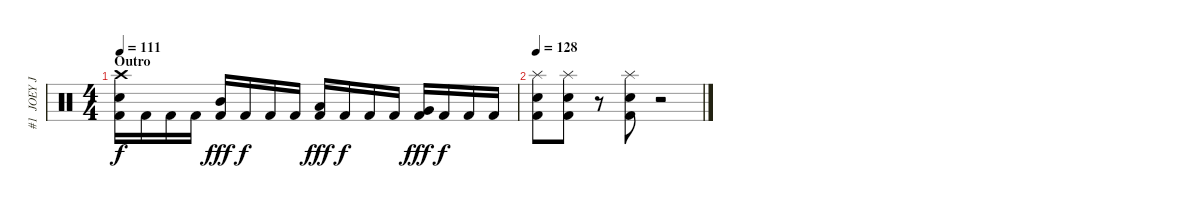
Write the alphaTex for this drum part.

\track ("#1  JOEY JORDISON" "#1  JOEY J") {instrument percussion}
\staff {score}
\articulation defaults
\ts (4 4)
\section ("" "Outro")
\tempo 111
\clef neutral
\ks c
("Crash high (hit)" "Electric Snare (hit)" "Kick (hit) 2").16{dy f} "Kick (hit) 2".16 "Kick (hit) 2".16 "Kick (hit) 2".16 ("Mid Tom (hit)" "Kick (hit) 2").16{dy fff} "Kick (hit) 2".16{dy f} "Kick (hit) 2".16 "Kick (hit) 2".16 ("Low Tom (hit)" "Kick (hit) 2").16{dy fff} "Kick (hit) 2".16{dy f} "Kick (hit) 2".16 "Kick (hit) 2".16 ("Very Low Tom (hit)" "Kick (hit) 2").16{dy fff} "Kick (hit) 2".16{dy f} "Kick (hit) 2".16 "Kick (hit) 2".16 |
\tempo 128
("Splash (hit)" "Electric Snare (hit)" "Kick (hit) 2").8 ("Splash (hit)" "Electric Snare (hit)" "Kick (hit) 2").8 r.8 ("Splash (hit)" "Electric Snare (hit)" "Kick (hit) 2").8 r.2
